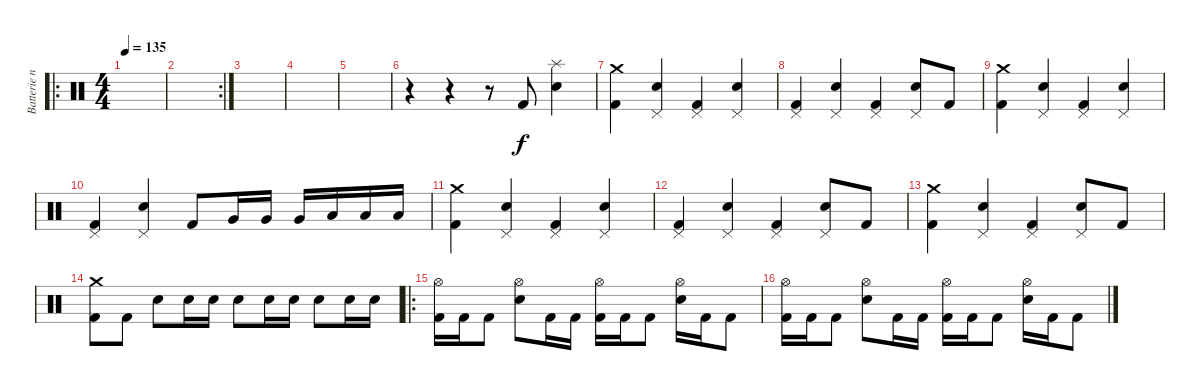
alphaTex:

\track ("Batterie n°3" "Batterie n") {instrument percussion}
\staff {score}
\articulation defaults
\ro
\ts (4 4)
\tempo 135
\clef neutral
\ks c
|
\rc 2
|
|
|
|
r.4 r.4 r.8 "Kick (hit) 2".8 ("Splash (hit)" "Snare (hit) 2").4 |
("Crash medium (hit)" "Kick (hit) 2").4 ("Pedal Hi-Hat (hit)" "Snare (hit) 2").4 ("Pedal Hi-Hat (hit)" "Kick (hit) 2").4 ("Pedal Hi-Hat (hit)" "Snare (hit) 2").4 |
("Pedal Hi-Hat (hit)" "Kick (hit) 2").4 ("Pedal Hi-Hat (hit)" "Snare (hit) 2").4 ("Pedal Hi-Hat (hit)" "Kick (hit) 2").4 ("Pedal Hi-Hat (hit)" "Snare (hit) 2").8 "Kick (hit) 2".8 |
("Crash medium (hit)" "Kick (hit) 2").4 ("Pedal Hi-Hat (hit)" "Snare (hit) 2").4 ("Pedal Hi-Hat (hit)" "Kick (hit) 2").4 ("Pedal Hi-Hat (hit)" "Snare (hit) 2").4 |
("Pedal Hi-Hat (hit)" "Kick (hit) 2").4 ("Pedal Hi-Hat (hit)" "Snare (hit) 2").4 "Kick (hit) 2".8 "Very Low Tom (hit)".16 "Very Low Tom (hit)".16 "Very Low Tom (hit)".16 "Low Tom (hit)".16 "Low Tom (hit)".16 "Low Tom (hit)".16 |
("Crash medium (hit)" "Kick (hit) 2").4 ("Pedal Hi-Hat (hit)" "Snare (hit) 2").4 ("Pedal Hi-Hat (hit)" "Kick (hit) 2").4 ("Pedal Hi-Hat (hit)" "Snare (hit) 2").4 |
("Pedal Hi-Hat (hit)" "Kick (hit) 2").4 ("Pedal Hi-Hat (hit)" "Snare (hit) 2").4 ("Pedal Hi-Hat (hit)" "Kick (hit) 2").4 ("Pedal Hi-Hat (hit)" "Snare (hit) 2").8 "Kick (hit) 2".8 |
("Crash medium (hit)" "Kick (hit) 2").4 ("Pedal Hi-Hat (hit)" "Snare (hit) 2").4 ("Pedal Hi-Hat (hit)" "Kick (hit) 2").4 ("Pedal Hi-Hat (hit)" "Snare (hit) 2").8 "Kick (hit) 2".8 |
("Crash medium (hit)" "Kick (hit) 2").8 "Kick (hit) 2".8 "Snare (hit) 2".8 "Snare (hit) 2".16 "Snare (hit) 2".16 "Snare (hit) 2".8 "Snare (hit) 2".16 "Snare (hit) 2".16 "Snare (hit) 2".8 "Snare (hit) 2".16 "Snare (hit) 2".16 |
\ro
("Hi-Hat (open)" "Kick (hit) 2").16 "Kick (hit) 2".16 "Kick (hit) 2".8 ("Hi-Hat (open)" "Snare (hit) 2").8 "Kick (hit) 2".16 "Kick (hit) 2".16 ("Hi-Hat (open)" "Kick (hit) 2").16 "Kick (hit) 2".16 "Kick (hit) 2".8 ("Hi-Hat (open)" "Snare (hit) 2").16 "Kick (hit) 2".16 "Kick (hit) 2".8 |
("Hi-Hat (open)" "Kick (hit) 2").16 "Kick (hit) 2".16 "Kick (hit) 2".8 ("Hi-Hat (open)" "Snare (hit) 2").8 "Kick (hit) 2".16 "Kick (hit) 2".16 ("Hi-Hat (open)" "Kick (hit) 2").16 "Kick (hit) 2".16 "Kick (hit) 2".8 ("Hi-Hat (open)" "Snare (hit) 2").16 "Kick (hit) 2".16 "Kick (hit) 2".8
